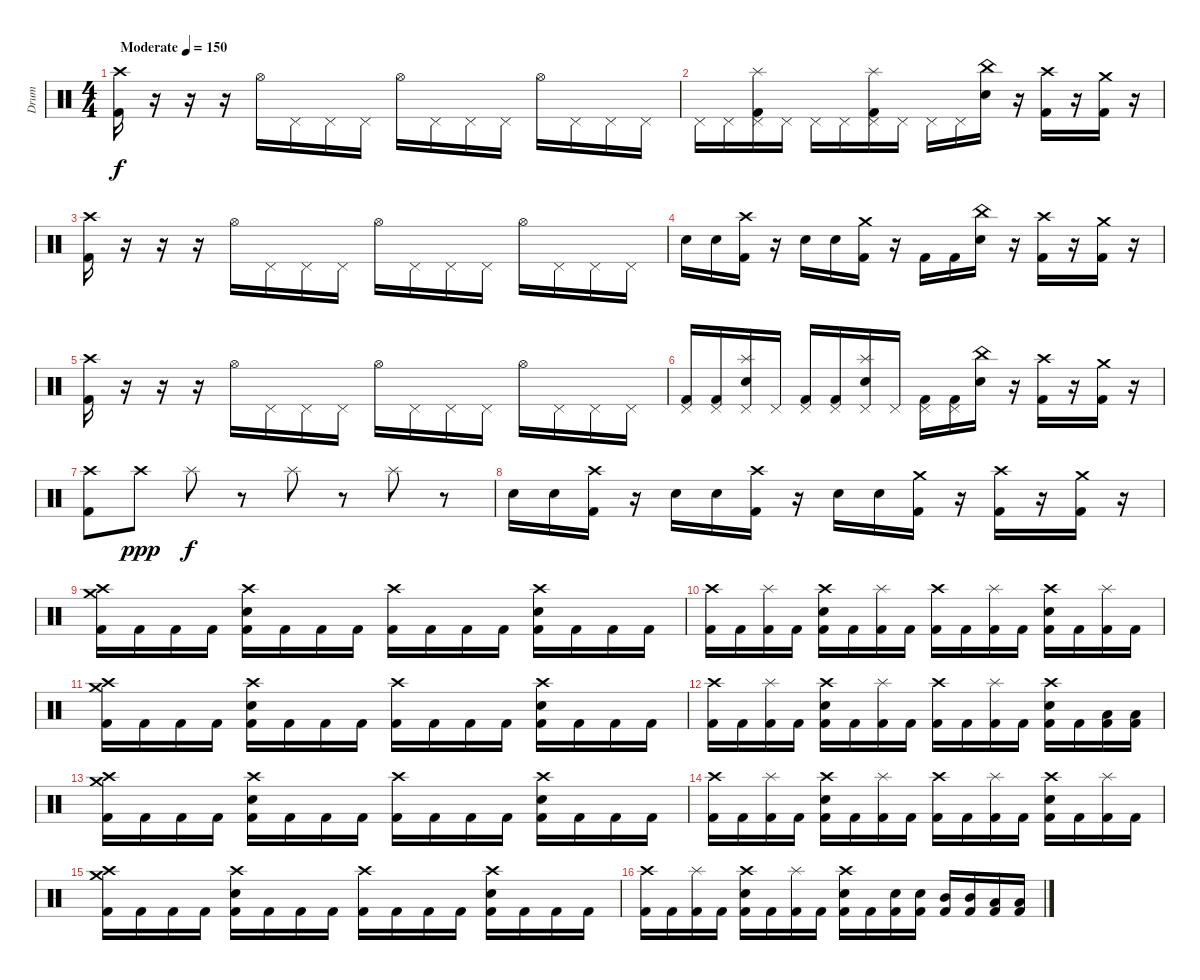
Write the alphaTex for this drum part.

\track ("Drum" "Drum") {instrument percussion}
\staff {score}
\articulation defaults
\ts (4 4)
\tempo (150 "Moderate")
\clef neutral
\ks c
("Crash high (hit)" "Kick (hit) 2").16{dy f} r.16 r.16 r.16 "Hi-Hat (open)".16 "Pedal Hi-Hat (hit)".16 "Pedal Hi-Hat (hit)".16 "Pedal Hi-Hat (hit)".16 "Hi-Hat (open)".16 "Pedal Hi-Hat (hit)".16 "Pedal Hi-Hat (hit)".16 "Pedal Hi-Hat (hit)".16 "Hi-Hat (open)".16 "Pedal Hi-Hat (hit)".16 "Pedal Hi-Hat (hit)".16 "Pedal Hi-Hat (hit)".16 |
"Pedal Hi-Hat (hit)".16 "Pedal Hi-Hat (hit)".16 ("Pedal Hi-Hat (hit)" "Splash (hit)" "Kick (hit) 2").16 "Pedal Hi-Hat (hit)".16 "Pedal Hi-Hat (hit)".16 "Pedal Hi-Hat (hit)".16 ("Pedal Hi-Hat (hit)" "Splash (hit)" "Kick (hit) 2").16 "Pedal Hi-Hat (hit)".16 "Pedal Hi-Hat (hit)".16 "Pedal Hi-Hat (hit)".16 ("China (hit)" "Snare (hit) 2").16 r.16 ("Crash high (hit)" "Kick (hit) 2").16 r.16 ("Crash medium (hit)" "Kick (hit) 2").16 r.16 |
("Crash high (hit)" "Kick (hit) 2").16 r.16 r.16 r.16 "Hi-Hat (open)".16 "Pedal Hi-Hat (hit)".16 "Pedal Hi-Hat (hit)".16 "Pedal Hi-Hat (hit)".16 "Hi-Hat (open)".16 "Pedal Hi-Hat (hit)".16 "Pedal Hi-Hat (hit)".16 "Pedal Hi-Hat (hit)".16 "Hi-Hat (open)".16 "Pedal Hi-Hat (hit)".16 "Pedal Hi-Hat (hit)".16 "Pedal Hi-Hat (hit)".16 |
"Snare (hit) 2".16 "Snare (hit) 2".16 ("Crash high (hit)" "Kick (hit) 2").16 r.16 "Snare (hit) 2".16 "Snare (hit) 2".16 ("Crash medium (hit)" "Kick (hit) 2").16 r.16 "Kick (hit) 2".16 "Kick (hit) 2".16 ("China (hit)" "Snare (hit) 2").16 r.16 ("Crash high (hit)" "Kick (hit) 2").16 r.16 ("Crash medium (hit)" "Kick (hit) 2").16 r.16 |
("Crash high (hit)" "Kick (hit) 2").16 r.16 r.16 r.16 "Hi-Hat (open)".16 "Pedal Hi-Hat (hit)".16 "Pedal Hi-Hat (hit)".16 "Pedal Hi-Hat (hit)".16 "Hi-Hat (open)".16 "Pedal Hi-Hat (hit)".16 "Pedal Hi-Hat (hit)".16 "Pedal Hi-Hat (hit)".16 "Hi-Hat (open)".16 "Pedal Hi-Hat (hit)".16 "Pedal Hi-Hat (hit)".16 "Pedal Hi-Hat (hit)".16 |
("Pedal Hi-Hat (hit)" "Kick (hit) 2").16 ("Pedal Hi-Hat (hit)" "Kick (hit) 2").16 ("Pedal Hi-Hat (hit)" "Snare (hit) 2" "Splash (hit)").16 "Pedal Hi-Hat (hit)".16 ("Pedal Hi-Hat (hit)" "Kick (hit) 2").16 ("Pedal Hi-Hat (hit)" "Kick (hit) 2").16 ("Pedal Hi-Hat (hit)" "Snare (hit) 2" "Splash (hit)").16 "Pedal Hi-Hat (hit)".16 ("Pedal Hi-Hat (hit)" "Kick (hit) 2").16 ("Pedal Hi-Hat (hit)" "Kick (hit) 2").16 ("China (hit)" "Snare (hit) 2").16 r.16 ("Crash high (hit)" "Kick (hit) 2").16 r.16 ("Crash medium (hit)" "Kick (hit) 2").16 r.16 |
("Crash high (hit)" "Kick (hit) 2").8 "Crash high (hit)".8{dy ppp} "Splash (hit)".8{dy f} r.8 "Splash (hit)".8 r.8 "Splash (hit)".8 r.8 |
"Snare (hit) 2".16 "Snare (hit) 2".16 ("Crash high (hit)" "Kick (hit) 2").16 r.16 "Snare (hit) 2".16 "Snare (hit) 2".16 ("Crash high (hit)" "Kick (hit) 2").16 r.16 "Snare (hit) 2".16 "Snare (hit) 2".16 ("Crash medium (hit)" "Kick (hit) 2").16 r.16 ("Crash high (hit)" "Kick (hit) 2").16 r.16 ("Crash medium (hit)" "Kick (hit) 2").16 r.16 |
("Crash high (hit)" "Crash medium (hit)" "Kick (hit) 2").16 "Kick (hit) 2".16 "Kick (hit) 2".16 "Kick (hit) 2".16 ("Crash high (hit)" "Snare (hit) 2" "Kick (hit) 2").16 "Kick (hit) 2".16 "Kick (hit) 2".16 "Kick (hit) 2".16 ("Crash high (hit)" "Kick (hit) 2").16 "Kick (hit) 2".16 "Kick (hit) 2".16 "Kick (hit) 2".16 ("Crash high (hit)" "Snare (hit) 2" "Kick (hit) 2").16 "Kick (hit) 2".16 "Kick (hit) 2".16 "Kick (hit) 2".16 |
("Crash high (hit)" "Kick (hit) 2").16 "Kick (hit) 2".16 ("Splash (hit)" "Kick (hit) 2").16 "Kick (hit) 2".16 ("Crash high (hit)" "Snare (hit) 2" "Kick (hit) 2").16 "Kick (hit) 2".16 ("Splash (hit)" "Kick (hit) 2").16 "Kick (hit) 2".16 ("Crash high (hit)" "Kick (hit) 2").16 "Kick (hit) 2".16 ("Splash (hit)" "Kick (hit) 2").16 "Kick (hit) 2".16 ("Crash high (hit)" "Snare (hit) 2" "Kick (hit) 2").16 "Kick (hit) 2".16 ("Splash (hit)" "Kick (hit) 2").16 "Kick (hit) 2".16 |
("Crash high (hit)" "Crash medium (hit)" "Kick (hit) 2").16 "Kick (hit) 2".16 "Kick (hit) 2".16 "Kick (hit) 2".16 ("Crash high (hit)" "Snare (hit) 2" "Kick (hit) 2").16 "Kick (hit) 2".16 "Kick (hit) 2".16 "Kick (hit) 2".16 ("Crash high (hit)" "Kick (hit) 2").16 "Kick (hit) 2".16 "Kick (hit) 2".16 "Kick (hit) 2".16 ("Crash high (hit)" "Snare (hit) 2" "Kick (hit) 2").16 "Kick (hit) 2".16 "Kick (hit) 2".16 "Kick (hit) 2".16 |
("Crash high (hit)" "Kick (hit) 2").16 "Kick (hit) 2".16 ("Splash (hit)" "Kick (hit) 2").16 "Kick (hit) 2".16 ("Crash high (hit)" "Snare (hit) 2" "Kick (hit) 2").16 "Kick (hit) 2".16 ("Splash (hit)" "Kick (hit) 2").16 "Kick (hit) 2".16 ("Crash high (hit)" "Kick (hit) 2").16 "Kick (hit) 2".16 ("Splash (hit)" "Kick (hit) 2").16 "Kick (hit) 2".16 ("Crash high (hit)" "Snare (hit) 2" "Kick (hit) 2").16 "Kick (hit) 2".16 ("Low Floor Tom (hit)" "Kick (hit) 2").16 ("Low Floor Tom (hit)" "Kick (hit) 2").16 |
("Crash high (hit)" "Crash medium (hit)" "Kick (hit) 2").16 "Kick (hit) 2".16 "Kick (hit) 2".16 "Kick (hit) 2".16 ("Crash high (hit)" "Snare (hit) 2" "Kick (hit) 2").16 "Kick (hit) 2".16 "Kick (hit) 2".16 "Kick (hit) 2".16 ("Crash high (hit)" "Kick (hit) 2").16 "Kick (hit) 2".16 "Kick (hit) 2".16 "Kick (hit) 2".16 ("Crash high (hit)" "Snare (hit) 2" "Kick (hit) 2").16 "Kick (hit) 2".16 "Kick (hit) 2".16 "Kick (hit) 2".16 |
("Crash high (hit)" "Kick (hit) 2").16 "Kick (hit) 2".16 ("Splash (hit)" "Kick (hit) 2").16 "Kick (hit) 2".16 ("Crash high (hit)" "Snare (hit) 2" "Kick (hit) 2").16 "Kick (hit) 2".16 ("Splash (hit)" "Kick (hit) 2").16 "Kick (hit) 2".16 ("Crash high (hit)" "Kick (hit) 2").16 "Kick (hit) 2".16 ("Splash (hit)" "Kick (hit) 2").16 "Kick (hit) 2".16 ("Crash high (hit)" "Snare (hit) 2" "Kick (hit) 2").16 "Kick (hit) 2".16 ("Splash (hit)" "Kick (hit) 2").16 "Kick (hit) 2".16 |
("Crash high (hit)" "Crash medium (hit)" "Kick (hit) 2").16 "Kick (hit) 2".16 "Kick (hit) 2".16 "Kick (hit) 2".16 ("Crash high (hit)" "Snare (hit) 2" "Kick (hit) 2").16 "Kick (hit) 2".16 "Kick (hit) 2".16 "Kick (hit) 2".16 ("Crash high (hit)" "Kick (hit) 2").16 "Kick (hit) 2".16 "Kick (hit) 2".16 "Kick (hit) 2".16 ("Crash high (hit)" "Snare (hit) 2" "Kick (hit) 2").16 "Kick (hit) 2".16 "Kick (hit) 2".16 "Kick (hit) 2".16 |
("Crash high (hit)" "Kick (hit) 2").16 "Kick (hit) 2".16 ("Splash (hit)" "Kick (hit) 2").16 "Kick (hit) 2".16 ("Crash high (hit)" "Snare (hit) 2" "Kick (hit) 2").16 "Kick (hit) 2".16 ("Splash (hit)" "Kick (hit) 2").16 "Kick (hit) 2".16 ("Crash high (hit)" "Snare (hit) 2" "Kick (hit) 2").16 "Kick (hit) 2".16 ("Snare (hit) 2" "Kick (hit) 2").16 ("Snare (hit) 2" "Kick (hit) 2").16 ("Mid Tom (hit)" "Kick (hit) 2").16 ("Mid Tom (hit)" "Kick (hit) 2").16 ("Low Tom (hit)" "Kick (hit) 2").16 ("Low Tom (hit)" "Kick (hit) 2").16
